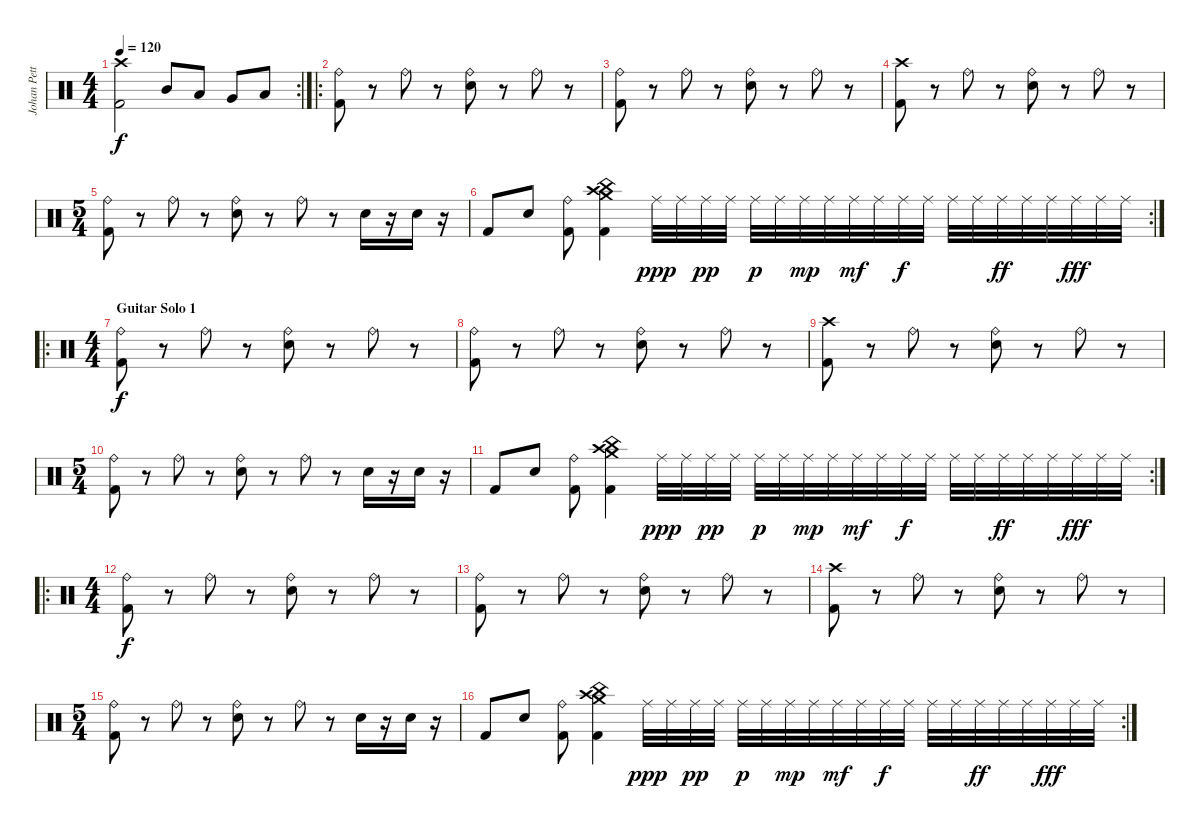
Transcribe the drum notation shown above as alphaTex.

\track ("Johan Petterson" "Johan Pett") {instrument percussion}
\staff {score}
\articulation defaults
\rc 2
\ts (4 4)
\tempo 120
\clef neutral
\ks c
("Crash high (hit)" "Kick (hit) 2").2{dy f} "Mid Tom (hit)".8 "Low Tom (hit)".8 "Very Low Tom (hit)".8 "Low Floor Tom (hit)".8 |
\ro
("Ride (bell)" "Kick (hit) 2").8 r.8 "Ride (bell)".8 r.8 ("Ride (bell)" "Snare (hit) 2").8 r.8 "Ride (bell)".8 r.8 |
("Ride (bell)" "Kick (hit) 2").8 r.8 "Ride (bell)".8 r.8 ("Ride (bell)" "Snare (hit) 2").8 r.8 "Ride (bell)".8 r.8 |
("Crash high (hit)" "Kick (hit) 2").8 r.8 "Ride (bell)".8 r.8 ("Ride (bell)" "Snare (hit) 2").8 r.8 "Ride (bell)".8 r.8 |
\ts (5 4)
("Ride (bell)" "Kick (hit) 2").8 r.8 "Ride (bell)".8 r.8 ("Ride (bell)" "Snare (hit) 2").8 r.8 "Ride (bell)".8 r.8 "Snare (hit) 2".16 r.16 "Snare (hit) 2".16 r.16 |
\rc 2 "Kick (hit) 2".8 "Snare (hit) 2".8
("Ride (bell)" "Kick (hit) 2").8 ("Crash high (hit)" "Crash medium (hit)" "China (hit)" "Kick (hit) 2").4 "Ride (middle)".32{dy ppp} "Ride (middle)".32 "Ride (middle)".32{dy pp} "Ride (middle)".32 "Ride (middle)".32{dy p} "Ride (middle)".32 "Ride (middle)".32{dy mp} "Ride (middle)".32 "Ride (middle)".32{dy mf} "Ride (middle)".32 "Ride (middle)".32{dy f} "Ride (middle)".32 "Ride (middle)".32 "Ride (middle)".32 "Ride (middle)".32{dy ff} "Ride (middle)".32 "Ride (middle)".32 "Ride (middle)".32{dy fff} "Ride (middle)".32 "Ride (middle)".32 |
\ro
\ts (4 4)
\section ("" "Guitar Solo 1")
("Ride (bell)" "Kick (hit) 2").8{dy f} r.8 "Ride (bell)".8 r.8 ("Ride (bell)" "Snare (hit) 2").8 r.8 "Ride (bell)".8 r.8 |
("Ride (bell)" "Kick (hit) 2").8 r.8 "Ride (bell)".8 r.8 ("Ride (bell)" "Snare (hit) 2").8 r.8 "Ride (bell)".8 r.8 |
("Crash high (hit)" "Kick (hit) 2").8 r.8 "Ride (bell)".8 r.8 ("Ride (bell)" "Snare (hit) 2").8 r.8 "Ride (bell)".8 r.8 |
\ts (5 4)
("Ride (bell)" "Kick (hit) 2").8 r.8 "Ride (bell)".8 r.8 ("Ride (bell)" "Snare (hit) 2").8 r.8 "Ride (bell)".8 r.8 "Snare (hit) 2".16 r.16 "Snare (hit) 2".16 r.16 |
\rc 2 "Kick (hit) 2".8 "Snare (hit) 2".8
("Ride (bell)" "Kick (hit) 2").8 ("Crash high (hit)" "Crash medium (hit)" "China (hit)" "Kick (hit) 2").4 "Ride (middle)".32{dy ppp} "Ride (middle)".32 "Ride (middle)".32{dy pp} "Ride (middle)".32 "Ride (middle)".32{dy p} "Ride (middle)".32 "Ride (middle)".32{dy mp} "Ride (middle)".32 "Ride (middle)".32{dy mf} "Ride (middle)".32 "Ride (middle)".32{dy f} "Ride (middle)".32 "Ride (middle)".32 "Ride (middle)".32 "Ride (middle)".32{dy ff} "Ride (middle)".32 "Ride (middle)".32 "Ride (middle)".32{dy fff} "Ride (middle)".32 "Ride (middle)".32 |
\ro
\ts (4 4)
("Ride (bell)" "Kick (hit) 2").8{dy f} r.8 "Ride (bell)".8 r.8 ("Ride (bell)" "Snare (hit) 2").8 r.8 "Ride (bell)".8 r.8 |
("Ride (bell)" "Kick (hit) 2").8 r.8 "Ride (bell)".8 r.8 ("Ride (bell)" "Snare (hit) 2").8 r.8 "Ride (bell)".8 r.8 |
("Crash high (hit)" "Kick (hit) 2").8 r.8 "Ride (bell)".8 r.8 ("Ride (bell)" "Snare (hit) 2").8 r.8 "Ride (bell)".8 r.8 |
\ts (5 4)
("Ride (bell)" "Kick (hit) 2").8 r.8 "Ride (bell)".8 r.8 ("Ride (bell)" "Snare (hit) 2").8 r.8 "Ride (bell)".8 r.8 "Snare (hit) 2".16 r.16 "Snare (hit) 2".16 r.16 |
\rc 2 "Kick (hit) 2".8 "Snare (hit) 2".8
("Ride (bell)" "Kick (hit) 2").8 ("Crash high (hit)" "Crash medium (hit)" "China (hit)" "Kick (hit) 2").4 "Ride (middle)".32{dy ppp} "Ride (middle)".32 "Ride (middle)".32{dy pp} "Ride (middle)".32 "Ride (middle)".32{dy p} "Ride (middle)".32 "Ride (middle)".32{dy mp} "Ride (middle)".32 "Ride (middle)".32{dy mf} "Ride (middle)".32 "Ride (middle)".32{dy f} "Ride (middle)".32 "Ride (middle)".32 "Ride (middle)".32 "Ride (middle)".32{dy ff} "Ride (middle)".32 "Ride (middle)".32 "Ride (middle)".32{dy fff} "Ride (middle)".32 "Ride (middle)".32
